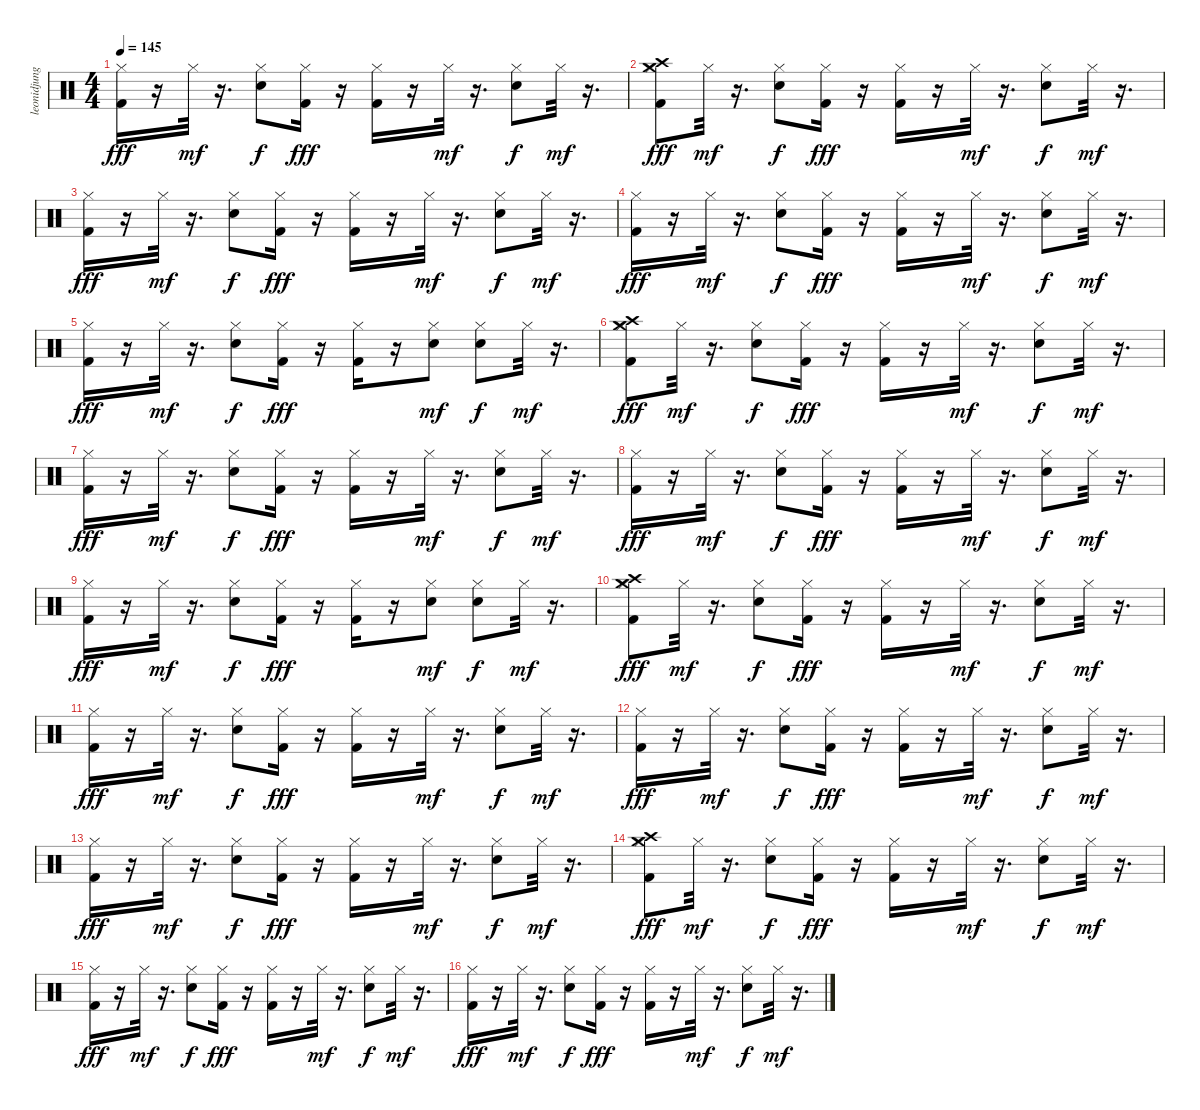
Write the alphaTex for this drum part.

\track ("leonidjung@freenet.de" "leonidjung") {instrument percussion}
\staff {score}
\articulation defaults
\ts (4 4)
\tempo 145
\clef neutral
\ks c
("Hi-Hat (closed)" "Kick (hit) 2").16{dy fff} r.16 "Hi-Hat (closed)".32{dy mf} r.16{d} ("Snare (hit) 2" "Hi-Hat (closed)").8{dy f} ("Hi-Hat (closed)" "Kick (hit) 2").16{dy fff} r.16 ("Hi-Hat (closed)" "Kick (hit) 2").16 r.16 "Hi-Hat (closed)".32{dy mf} r.16{d} ("Snare (hit) 2" "Hi-Hat (closed)").8{dy f} "Hi-Hat (closed)".32{dy mf} r.16{d} |
("Hi-Hat (closed)" "Crash high (hit)" "Crash medium (hit)" "Kick (hit) 2").8{dy fff} "Hi-Hat (closed)".32{dy mf} r.16{d} ("Snare (hit) 2" "Hi-Hat (closed)").8{dy f} ("Hi-Hat (closed)" "Kick (hit) 2").16{dy fff} r.16 ("Hi-Hat (closed)" "Kick (hit) 2").16 r.16 "Hi-Hat (closed)".32{dy mf} r.16{d} ("Snare (hit) 2" "Hi-Hat (closed)").8{dy f} "Hi-Hat (closed)".32{dy mf} r.16{d} |
("Hi-Hat (closed)" "Kick (hit) 2").16{dy fff} r.16 "Hi-Hat (closed)".32{dy mf} r.16{d} ("Snare (hit) 2" "Hi-Hat (closed)").8{dy f} ("Hi-Hat (closed)" "Kick (hit) 2").16{dy fff} r.16 ("Hi-Hat (closed)" "Kick (hit) 2").16 r.16 "Hi-Hat (closed)".32{dy mf} r.16{d} ("Snare (hit) 2" "Hi-Hat (closed)").8{dy f} "Hi-Hat (closed)".32{dy mf} r.16{d} |
("Hi-Hat (closed)" "Kick (hit) 2").16{dy fff} r.16 "Hi-Hat (closed)".32{dy mf} r.16{d} ("Snare (hit) 2" "Hi-Hat (closed)").8{dy f} ("Hi-Hat (closed)" "Kick (hit) 2").16{dy fff} r.16 ("Hi-Hat (closed)" "Kick (hit) 2").16 r.16 "Hi-Hat (closed)".32{dy mf} r.16{d} ("Snare (hit) 2" "Hi-Hat (closed)").8{dy f} "Hi-Hat (closed)".32{dy mf} r.16{d} |
("Hi-Hat (closed)" "Kick (hit) 2").16{dy fff} r.16 "Hi-Hat (closed)".32{dy mf} r.16{d} ("Snare (hit) 2" "Hi-Hat (closed)").8{dy f} ("Hi-Hat (closed)" "Kick (hit) 2").16{dy fff} r.16 ("Hi-Hat (closed)" "Kick (hit) 2").16 r.16 ("Snare (hit) 2" "Hi-Hat (closed)").8{dy mf} ("Snare (hit) 2" "Hi-Hat (closed)").8{dy f} "Hi-Hat (closed)".32{dy mf} r.16{d} |
("Hi-Hat (closed)" "Crash high (hit)" "Crash medium (hit)" "Kick (hit) 2").8{dy fff} "Hi-Hat (closed)".32{dy mf} r.16{d} ("Snare (hit) 2" "Hi-Hat (closed)").8{dy f} ("Hi-Hat (closed)" "Kick (hit) 2").16{dy fff} r.16 ("Hi-Hat (closed)" "Kick (hit) 2").16 r.16 "Hi-Hat (closed)".32{dy mf} r.16{d} ("Snare (hit) 2" "Hi-Hat (closed)").8{dy f} "Hi-Hat (closed)".32{dy mf} r.16{d} |
("Hi-Hat (closed)" "Kick (hit) 2").16{dy fff} r.16 "Hi-Hat (closed)".32{dy mf} r.16{d} ("Snare (hit) 2" "Hi-Hat (closed)").8{dy f} ("Hi-Hat (closed)" "Kick (hit) 2").16{dy fff} r.16 ("Hi-Hat (closed)" "Kick (hit) 2").16 r.16 "Hi-Hat (closed)".32{dy mf} r.16{d} ("Snare (hit) 2" "Hi-Hat (closed)").8{dy f} "Hi-Hat (closed)".32{dy mf} r.16{d} |
("Hi-Hat (closed)" "Kick (hit) 2").16{dy fff} r.16 "Hi-Hat (closed)".32{dy mf} r.16{d} ("Snare (hit) 2" "Hi-Hat (closed)").8{dy f} ("Hi-Hat (closed)" "Kick (hit) 2").16{dy fff} r.16 ("Hi-Hat (closed)" "Kick (hit) 2").16 r.16 "Hi-Hat (closed)".32{dy mf} r.16{d} ("Snare (hit) 2" "Hi-Hat (closed)").8{dy f} "Hi-Hat (closed)".32{dy mf} r.16{d} |
("Hi-Hat (closed)" "Kick (hit) 2").16{dy fff} r.16 "Hi-Hat (closed)".32{dy mf} r.16{d} ("Snare (hit) 2" "Hi-Hat (closed)").8{dy f} ("Hi-Hat (closed)" "Kick (hit) 2").16{dy fff} r.16 ("Hi-Hat (closed)" "Kick (hit) 2").16 r.16 ("Snare (hit) 2" "Hi-Hat (closed)").8{dy mf} ("Snare (hit) 2" "Hi-Hat (closed)").8{dy f} "Hi-Hat (closed)".32{dy mf} r.16{d} |
("Hi-Hat (closed)" "Crash high (hit)" "Crash medium (hit)" "Kick (hit) 2").8{dy fff} "Hi-Hat (closed)".32{dy mf} r.16{d} ("Snare (hit) 2" "Hi-Hat (closed)").8{dy f} ("Hi-Hat (closed)" "Kick (hit) 2").16{dy fff} r.16 ("Hi-Hat (closed)" "Kick (hit) 2").16 r.16 "Hi-Hat (closed)".32{dy mf} r.16{d} ("Snare (hit) 2" "Hi-Hat (closed)").8{dy f} "Hi-Hat (closed)".32{dy mf} r.16{d} |
("Hi-Hat (closed)" "Kick (hit) 2").16{dy fff} r.16 "Hi-Hat (closed)".32{dy mf} r.16{d} ("Snare (hit) 2" "Hi-Hat (closed)").8{dy f} ("Hi-Hat (closed)" "Kick (hit) 2").16{dy fff} r.16 ("Hi-Hat (closed)" "Kick (hit) 2").16 r.16 "Hi-Hat (closed)".32{dy mf} r.16{d} ("Snare (hit) 2" "Hi-Hat (closed)").8{dy f} "Hi-Hat (closed)".32{dy mf} r.16{d} |
("Hi-Hat (closed)" "Kick (hit) 2").16{dy fff} r.16 "Hi-Hat (closed)".32{dy mf} r.16{d} ("Snare (hit) 2" "Hi-Hat (closed)").8{dy f} ("Hi-Hat (closed)" "Kick (hit) 2").16{dy fff} r.16 ("Hi-Hat (closed)" "Kick (hit) 2").16 r.16 "Hi-Hat (closed)".32{dy mf} r.16{d} ("Snare (hit) 2" "Hi-Hat (closed)").8{dy f} "Hi-Hat (closed)".32{dy mf} r.16{d} |
("Hi-Hat (closed)" "Kick (hit) 2").16{dy fff} r.16 "Hi-Hat (closed)".32{dy mf} r.16{d} ("Snare (hit) 2" "Hi-Hat (closed)").8{dy f} ("Hi-Hat (closed)" "Kick (hit) 2").16{dy fff} r.16 ("Hi-Hat (closed)" "Kick (hit) 2").16 r.16 "Hi-Hat (closed)".32{dy mf} r.16{d} ("Snare (hit) 2" "Hi-Hat (closed)").8{dy f} "Hi-Hat (closed)".32{dy mf} r.16{d} |
("Hi-Hat (closed)" "Crash high (hit)" "Crash medium (hit)" "Kick (hit) 2").8{dy fff} "Hi-Hat (closed)".32{dy mf} r.16{d} ("Snare (hit) 2" "Hi-Hat (closed)").8{dy f} ("Hi-Hat (closed)" "Kick (hit) 2").16{dy fff} r.16 ("Hi-Hat (closed)" "Kick (hit) 2").16 r.16 "Hi-Hat (closed)".32{dy mf} r.16{d} ("Snare (hit) 2" "Hi-Hat (closed)").8{dy f} "Hi-Hat (closed)".32{dy mf} r.16{d} |
("Hi-Hat (closed)" "Kick (hit) 2").16{dy fff} r.16 "Hi-Hat (closed)".32{dy mf} r.16{d} ("Snare (hit) 2" "Hi-Hat (closed)").8{dy f} ("Hi-Hat (closed)" "Kick (hit) 2").16{dy fff} r.16 ("Hi-Hat (closed)" "Kick (hit) 2").16 r.16 "Hi-Hat (closed)".32{dy mf} r.16{d} ("Snare (hit) 2" "Hi-Hat (closed)").8{dy f} "Hi-Hat (closed)".32{dy mf} r.16{d} |
("Hi-Hat (closed)" "Kick (hit) 2").16{dy fff} r.16 "Hi-Hat (closed)".32{dy mf} r.16{d} ("Snare (hit) 2" "Hi-Hat (closed)").8{dy f} ("Hi-Hat (closed)" "Kick (hit) 2").16{dy fff} r.16 ("Hi-Hat (closed)" "Kick (hit) 2").16 r.16 "Hi-Hat (closed)".32{dy mf} r.16{d} ("Snare (hit) 2" "Hi-Hat (closed)").8{dy f} "Hi-Hat (closed)".32{dy mf} r.16{d}
